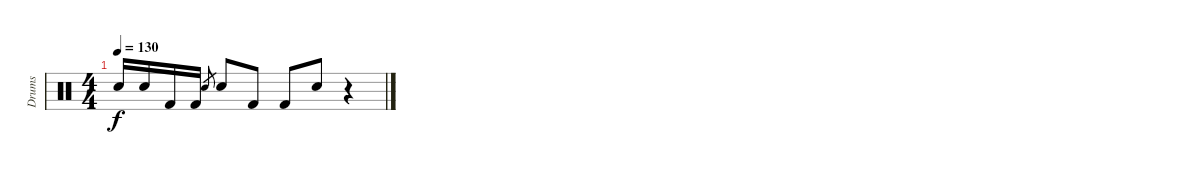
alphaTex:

\track ("Drums" "Drums") {instrument percussion}
\staff {score}
\articulation defaults
\ts (4 4)
\tempo 130
\clef neutral
\ks c "Electric Snare (hit)".16{dy f} "Electric Snare (hit)".16 "Kick (hit) 2".16 "Kick (hit) 2".16 "Electric Snare (hit)".8{gr} "Electric Snare (hit)".8 "Kick (hit) 2".8 "Kick (hit) 2".8 "Electric Snare (hit)".8
r.4
